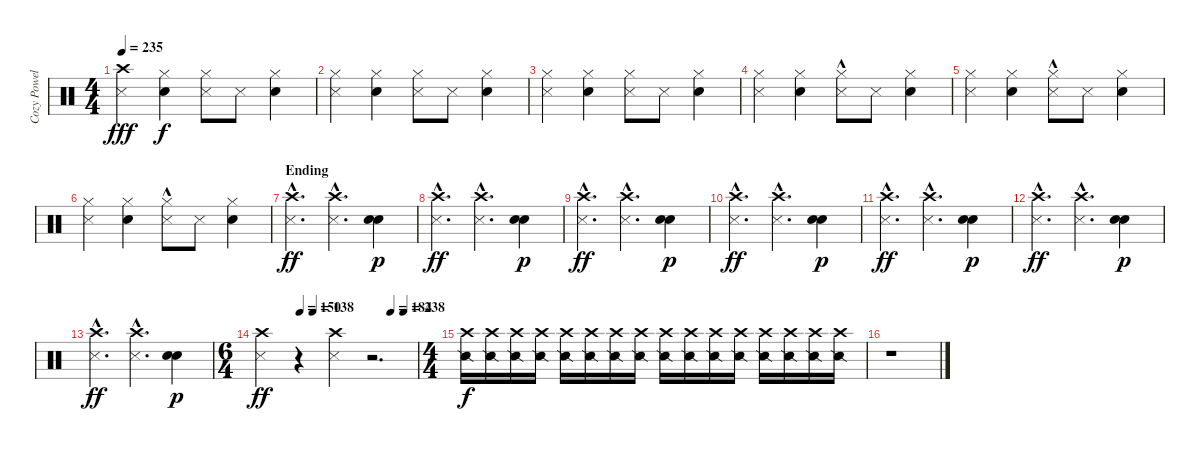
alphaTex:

\track ("Cozy Powell" "Cozy Powel") {instrument percussion}
\staff {score}
\articulation defaults
\ts (4 4)
\tempo 235
\clef neutral
\ks c
("Crash high (hit)" "Metronome (hit)").4{dy fff} ("Hi-Hat (closed)" "Electric Snare (hit)").4{dy f} ("Hi-Hat (closed)" "Metronome (hit)").8 "Metronome (hit)".8 ("Hi-Hat (closed)" "Electric Snare (hit)").4 |
("Hi-Hat (closed)" "Metronome (hit)").4 ("Electric Snare (hit)" "Hi-Hat (closed)").4 ("Metronome (hit)" "Hi-Hat (closed)").8 "Metronome (hit)".8 ("Electric Snare (hit)" "Hi-Hat (closed)").4 |
("Metronome (hit)" "Hi-Hat (closed)").4 ("Electric Snare (hit)" "Hi-Hat (closed)").4 ("Metronome (hit)" "Hi-Hat (closed)").8 "Metronome (hit)".8 ("Electric Snare (hit)" "Hi-Hat (closed)").4 |
("Metronome (hit)" "Hi-Hat (closed)").4 ("Electric Snare (hit)" "Hi-Hat (closed)").4 ("Metronome (hit)"{hac} "Hi-Hat (closed)"{hac}).8 "Metronome (hit)".8 ("Electric Snare (hit)" "Hi-Hat (closed)").4 |
("Metronome (hit)" "Hi-Hat (closed)").4 ("Hi-Hat (closed)" "Electric Snare (hit)").4 ("Metronome (hit)"{hac} "Hi-Hat (closed)"{hac}).8 "Metronome (hit)".8 ("Electric Snare (hit)" "Hi-Hat (closed)").4 |
("Metronome (hit)" "Hi-Hat (closed)").4 ("Electric Snare (hit)" "Hi-Hat (closed)").4 ("Metronome (hit)"{hac} "Hi-Hat (closed)"{hac}).8 "Metronome (hit)".8 ("Electric Snare (hit)" "Hi-Hat (closed)").4 |
\section ("" "Ending")
("Crash high (hit)"{hac} "Metronome (hit)"{hac}).4{d dy ff} ("Metronome (hit)"{hac} "Crash high (hit)"{hac}).4{d} ("Electric Snare (hit)" "Electric Snare (hit)").4{dy p} |
("Crash high (hit)"{hac} "Metronome (hit)"{hac}).4{d dy ff} ("Metronome (hit)"{hac} "Crash high (hit)"{hac}).4{d} ("Electric Snare (hit)" "Electric Snare (hit)").4{dy p} |
("Crash high (hit)"{hac} "Metronome (hit)"{hac}).4{d dy ff} ("Crash high (hit)"{hac} "Metronome (hit)"{hac}).4{d} ("Electric Snare (hit)" "Electric Snare (hit)").4{dy p} |
("Crash high (hit)"{hac} "Metronome (hit)"{hac}).4{d dy ff} ("Metronome (hit)"{hac} "Crash high (hit)"{hac}).4{d} ("Electric Snare (hit)" "Electric Snare (hit)").4{dy p} |
("Crash high (hit)"{hac} "Metronome (hit)"{hac}).4{d dy ff} ("Crash high (hit)"{hac} "Metronome (hit)"{hac}).4{d} ("Electric Snare (hit)" "Electric Snare (hit)").4{dy p} |
("Crash high (hit)"{hac} "Metronome (hit)"{hac}).4{d dy ff} ("Crash high (hit)"{hac} "Metronome (hit)"{hac}).4{d} ("Electric Snare (hit)" "Electric Snare (hit)").4{dy p} |
("Metronome (hit)"{hac} "Crash high (hit)"{hac}).4{d dy ff} ("Metronome (hit)"{hac} "Crash high (hit)"{hac}).4{d} ("Electric Snare (hit)" "Electric Snare (hit)").4{dy p} |
\ts (6 4)
\tempo (150 0.25)
\tempo (138 0.3333333333333333)
\tempo (184 0.8333333333333334)
\tempo (238 0.9166666666666666)
("Metronome (hit)" "Crash high (hit)").4{dy ff} r.4 ("Metronome (hit)" "Crash high (hit)").4 r.2{d} |
\ts (4 4)
("Snare (side stick) 2" "Crash high (hit)").16{dy f} ("Snare (side stick) 2" "Crash high (hit)").16 ("Snare (side stick) 2" "Crash high (hit)").16 ("Snare (side stick) 2" "Crash high (hit)").16 ("Snare (side stick) 2" "Crash high (hit)").16 ("Snare (side stick) 2" "Crash high (hit)").16 ("Snare (side stick) 2" "Crash high (hit)").16 ("Snare (side stick) 2" "Crash high (hit)").16 ("Snare (side stick) 2" "Crash high (hit)").16 ("Snare (side stick) 2" "Crash high (hit)").16 ("Snare (side stick) 2" "Crash high (hit)").16 ("Snare (side stick) 2" "Crash high (hit)").16 ("Snare (side stick) 2" "Crash high (hit)").16 ("Snare (side stick) 2" "Crash high (hit)").16 ("Snare (side stick) 2" "Crash high (hit)").16 ("Snare (side stick) 2" "Crash high (hit)").16 |
r.1
